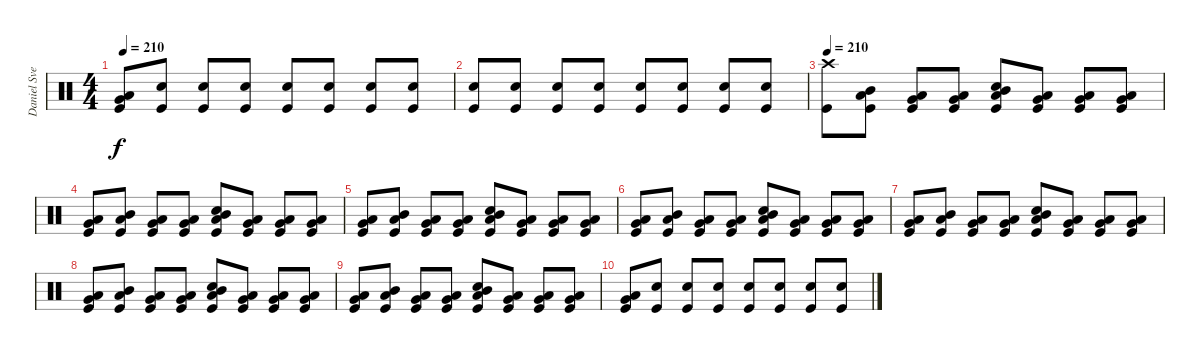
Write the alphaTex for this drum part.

\track ("Daniel Svensson" "Daniel Sve") {instrument percussion}
\staff {score}
\articulation defaults
\ts (4 4)
\tempo 210
\clef neutral
\ks c
("Very Low Tom (hit)" "Low Tom (hit)" "Kick (hit)").8{dy f} ("Electric Snare (hit)" "Kick (hit)").8 ("Electric Snare (hit)" "Kick (hit)").8 ("Electric Snare (hit)" "Kick (hit)").8 ("Electric Snare (hit)" "Kick (hit)").8 ("Electric Snare (hit)" "Kick (hit)").8 ("Electric Snare (hit)" "Kick (hit)").8 ("Electric Snare (hit)" "Kick (hit)").8 |
("Electric Snare (hit)" "Kick (hit)").8 ("Electric Snare (hit)" "Kick (hit)").8 ("Electric Snare (hit)" "Kick (hit)").8 ("Electric Snare (hit)" "Kick (hit)").8 ("Electric Snare (hit)" "Kick (hit)").8 ("Electric Snare (hit)" "Kick (hit)").8 ("Electric Snare (hit)" "Kick (hit)").8 ("Electric Snare (hit)" "Kick (hit)").8 |
\tempo 210
("Crash high (hit)" "Kick (hit)").8 ("Low Tom (hit)" "Mid Tom (hit)" "Kick (hit)").8 ("Very Low Tom (hit)" "Low Tom (hit)" "Kick (hit)").8 ("Low Floor Tom (hit)" "Very Low Tom (hit)" "Kick (hit)").8 ("Low Tom (hit)" "Mid Tom (hit)" "Electric Snare (hit)" "Kick (hit)").8 ("Very Low Tom (hit)" "Low Tom (hit)" "Kick (hit)").8 ("Low Floor Tom (hit)" "Very Low Tom (hit)" "Kick (hit)").8 ("Very Low Tom (hit)" "Low Tom (hit)" "Kick (hit)").8 |
("Very Low Tom (hit)" "Low Tom (hit)" "Kick (hit)").8 ("Low Tom (hit)" "Mid Tom (hit)" "Kick (hit)").8 ("Very Low Tom (hit)" "Low Tom (hit)" "Kick (hit)").8 ("Low Floor Tom (hit)" "Very Low Tom (hit)" "Kick (hit)").8 ("Low Tom (hit)" "Mid Tom (hit)" "Electric Snare (hit)" "Kick (hit)").8 ("Very Low Tom (hit)" "Low Tom (hit)" "Kick (hit)").8 ("Low Floor Tom (hit)" "Very Low Tom (hit)" "Kick (hit)").8 ("Very Low Tom (hit)" "Low Tom (hit)" "Kick (hit)").8 |
("Very Low Tom (hit)" "Low Tom (hit)" "Kick (hit)").8 ("Low Tom (hit)" "Mid Tom (hit)" "Kick (hit)").8 ("Very Low Tom (hit)" "Low Tom (hit)" "Kick (hit)").8 ("Low Floor Tom (hit)" "Very Low Tom (hit)" "Kick (hit)").8 ("Low Tom (hit)" "Mid Tom (hit)" "Electric Snare (hit)" "Kick (hit)").8 ("Very Low Tom (hit)" "Low Tom (hit)" "Kick (hit)").8 ("Low Floor Tom (hit)" "Very Low Tom (hit)" "Kick (hit)").8 ("Very Low Tom (hit)" "Low Tom (hit)" "Kick (hit)").8 |
("Very Low Tom (hit)" "Low Tom (hit)" "Kick (hit)").8 ("Low Tom (hit)" "Mid Tom (hit)" "Kick (hit)").8 ("Very Low Tom (hit)" "Low Tom (hit)" "Kick (hit)").8 ("Low Floor Tom (hit)" "Very Low Tom (hit)" "Kick (hit)").8 ("Low Tom (hit)" "Mid Tom (hit)" "Electric Snare (hit)" "Kick (hit)").8 ("Very Low Tom (hit)" "Low Tom (hit)" "Kick (hit)").8 ("Low Floor Tom (hit)" "Very Low Tom (hit)" "Kick (hit)").8 ("Very Low Tom (hit)" "Low Tom (hit)" "Kick (hit)").8 |
("Very Low Tom (hit)" "Low Tom (hit)" "Kick (hit)").8 ("Low Tom (hit)" "Mid Tom (hit)" "Kick (hit)").8 ("Very Low Tom (hit)" "Low Tom (hit)" "Kick (hit)").8 ("Low Floor Tom (hit)" "Very Low Tom (hit)" "Kick (hit)").8 ("Low Tom (hit)" "Mid Tom (hit)" "Electric Snare (hit)" "Kick (hit)").8 ("Very Low Tom (hit)" "Low Tom (hit)" "Kick (hit)").8 ("Low Floor Tom (hit)" "Very Low Tom (hit)" "Kick (hit)").8 ("Very Low Tom (hit)" "Low Tom (hit)" "Kick (hit)").8 |
("Very Low Tom (hit)" "Low Tom (hit)" "Kick (hit)").8 ("Low Tom (hit)" "Mid Tom (hit)" "Kick (hit)").8 ("Very Low Tom (hit)" "Low Tom (hit)" "Kick (hit)").8 ("Low Floor Tom (hit)" "Very Low Tom (hit)" "Kick (hit)").8 ("Low Tom (hit)" "Mid Tom (hit)" "Electric Snare (hit)" "Kick (hit)").8 ("Very Low Tom (hit)" "Low Tom (hit)" "Kick (hit)").8 ("Low Floor Tom (hit)" "Very Low Tom (hit)" "Kick (hit)").8 ("Very Low Tom (hit)" "Low Tom (hit)" "Kick (hit)").8 |
("Very Low Tom (hit)" "Low Tom (hit)" "Kick (hit)").8 ("Low Tom (hit)" "Mid Tom (hit)" "Kick (hit)").8 ("Very Low Tom (hit)" "Low Tom (hit)" "Kick (hit)").8 ("Low Floor Tom (hit)" "Very Low Tom (hit)" "Kick (hit)").8 ("Low Tom (hit)" "Mid Tom (hit)" "Electric Snare (hit)" "Kick (hit)").8 ("Very Low Tom (hit)" "Low Tom (hit)" "Kick (hit)").8 ("Low Floor Tom (hit)" "Very Low Tom (hit)" "Kick (hit)").8 ("Very Low Tom (hit)" "Low Tom (hit)" "Kick (hit)").8 |
("Very Low Tom (hit)" "Low Tom (hit)" "Kick (hit)").8 ("Electric Snare (hit)" "Kick (hit)").8 ("Electric Snare (hit)" "Kick (hit)").8 ("Electric Snare (hit)" "Kick (hit)").8 ("Electric Snare (hit)" "Kick (hit)").8 ("Electric Snare (hit)" "Kick (hit)").8 ("Electric Snare (hit)" "Kick (hit)").8 ("Electric Snare (hit)" "Kick (hit)").8
